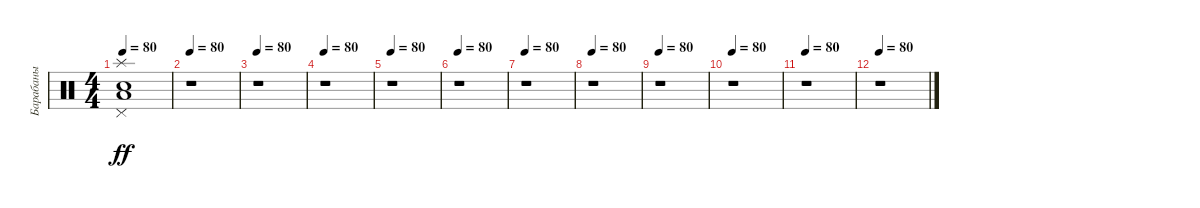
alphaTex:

\track ("Барабаны" "Барабаны") {instrument percussion}
\staff {score}
\articulation defaults
\ts (4 4)
\tempo 80
\clef neutral
\ks c
("Electric Snare (hit)" "Low Floor Tom (hit)" "Pedal Hi-Hat (hit)" "Splash (hit)").1{dy ff} |
\tempo 80
r.1 |
\tempo 80
r.1 |
\tempo 80
r.1 |
\tempo 80
r.1 |
\tempo 80
r.1 |
\tempo 80
r.1 |
\tempo 80
r.1 |
\tempo 80
r.1 |
\tempo 80
r.1 |
\tempo 80
r.1 |
\tempo 80
r.1
